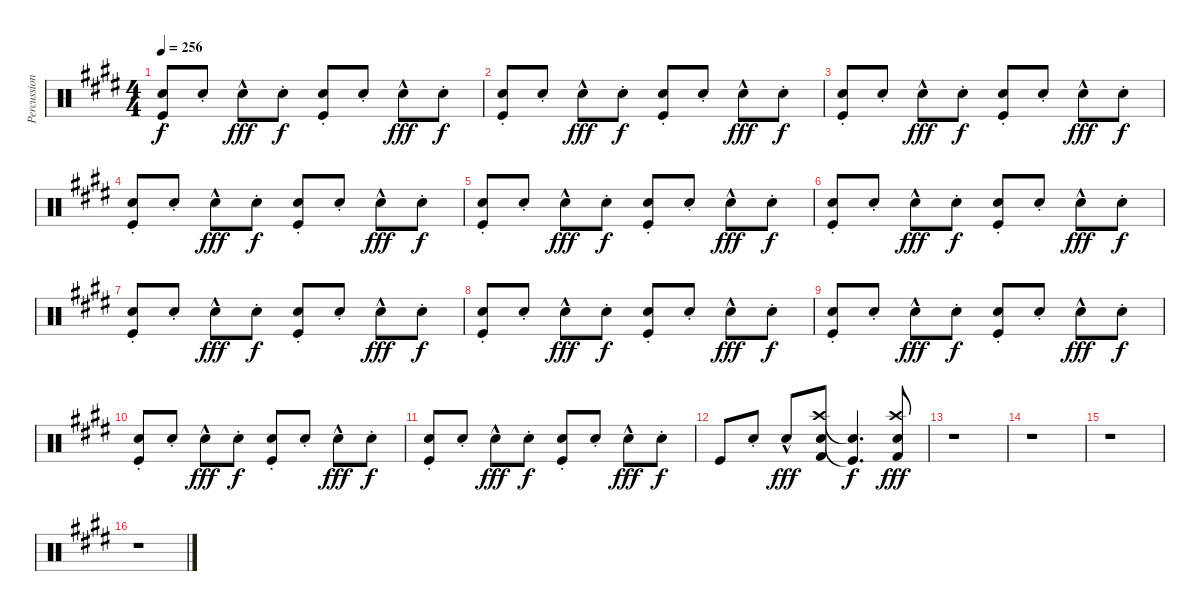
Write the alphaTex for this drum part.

\track ("Percussion" "Percussion") {instrument percussion}
\staff {score}
\articulation defaults
\ts (4 4)
\tempo 256
\clef neutral
\ks e
("Snare (hit) 2"{st} "Kick (hit)").8{dy f} "Snare (hit) 2"{st}.8 "Snare (hit) 2"{hac}.8{dy fff} "Snare (hit) 2"{st}.8{dy f} ("Snare (hit) 2"{st} "Kick (hit)").8 "Snare (hit) 2"{st}.8 "Snare (hit) 2"{hac}.8{dy fff} "Snare (hit) 2"{st}.8{dy f} |
("Snare (hit) 2"{st} "Kick (hit)").8 "Snare (hit) 2"{st}.8 "Snare (hit) 2"{hac}.8{dy fff} "Snare (hit) 2"{st}.8{dy f} ("Snare (hit) 2"{st} "Kick (hit)").8 "Snare (hit) 2"{st}.8 "Snare (hit) 2"{hac}.8{dy fff} "Snare (hit) 2"{st}.8{dy f} |
("Snare (hit) 2"{st} "Kick (hit)").8 "Snare (hit) 2"{st}.8 "Snare (hit) 2"{hac}.8{dy fff} "Snare (hit) 2"{st}.8{dy f} ("Snare (hit) 2"{st} "Kick (hit)").8 "Snare (hit) 2"{st}.8 "Snare (hit) 2"{hac}.8{dy fff} "Snare (hit) 2"{st}.8{dy f} |
("Snare (hit) 2"{st} "Kick (hit)").8 "Snare (hit) 2"{st}.8 "Snare (hit) 2"{hac}.8{dy fff} "Snare (hit) 2"{st}.8{dy f} ("Snare (hit) 2"{st} "Kick (hit)").8 "Snare (hit) 2"{st}.8 "Snare (hit) 2"{hac}.8{dy fff} "Snare (hit) 2"{st}.8{dy f} |
("Snare (hit) 2"{st} "Kick (hit)").8 "Snare (hit) 2"{st}.8 "Snare (hit) 2"{hac}.8{dy fff} "Snare (hit) 2"{st}.8{dy f} ("Snare (hit) 2"{st} "Kick (hit)").8 "Snare (hit) 2"{st}.8 "Snare (hit) 2"{hac}.8{dy fff} "Snare (hit) 2"{st}.8{dy f} |
("Snare (hit) 2"{st} "Kick (hit)").8 "Snare (hit) 2"{st}.8 "Snare (hit) 2"{hac}.8{dy fff} "Snare (hit) 2"{st}.8{dy f} ("Snare (hit) 2"{st} "Kick (hit)").8 "Snare (hit) 2"{st}.8 "Snare (hit) 2"{hac}.8{dy fff} "Snare (hit) 2"{st}.8{dy f} |
("Snare (hit) 2"{st} "Kick (hit)").8 "Snare (hit) 2"{st}.8 "Snare (hit) 2"{hac}.8{dy fff} "Snare (hit) 2"{st}.8{dy f} ("Snare (hit) 2"{st} "Kick (hit)").8 "Snare (hit) 2"{st}.8 "Snare (hit) 2"{hac}.8{dy fff} "Snare (hit) 2"{st}.8{dy f} |
("Snare (hit) 2"{st} "Kick (hit)").8 "Snare (hit) 2"{st}.8 "Snare (hit) 2"{hac}.8{dy fff} "Snare (hit) 2"{st}.8{dy f} ("Snare (hit) 2"{st} "Kick (hit)").8 "Snare (hit) 2"{st}.8 "Snare (hit) 2"{hac}.8{dy fff} "Snare (hit) 2"{st}.8{dy f} |
("Snare (hit) 2"{st} "Kick (hit)").8 "Snare (hit) 2"{st}.8 "Snare (hit) 2"{hac}.8{dy fff} "Snare (hit) 2"{st}.8{dy f} ("Snare (hit) 2"{st} "Kick (hit)").8 "Snare (hit) 2"{st}.8 "Snare (hit) 2"{hac}.8{dy fff} "Snare (hit) 2"{st}.8{dy f} |
("Snare (hit) 2"{st} "Kick (hit)").8 "Snare (hit) 2"{st}.8 "Snare (hit) 2"{hac}.8{dy fff} "Snare (hit) 2"{st}.8{dy f} ("Snare (hit) 2"{st} "Kick (hit)").8 "Snare (hit) 2"{st}.8 "Snare (hit) 2"{hac}.8{dy fff} "Snare (hit) 2"{st}.8{dy f} |
("Snare (hit) 2"{st} "Kick (hit)").8 "Snare (hit) 2"{st}.8 "Snare (hit) 2"{hac}.8{dy fff} "Snare (hit) 2"{st}.8{dy f} ("Snare (hit) 2"{st} "Kick (hit)").8 "Snare (hit) 2"{st}.8 "Snare (hit) 2"{hac}.8{dy fff} "Snare (hit) 2"{st}.8{dy f} |
"Kick (hit)".8 "Snare (hit) 2"{st}.8 "Snare (hit) 2"{hac}.8{dy fff} ("Crash high (hit)" "Snare (hit) 2" "Kick (hit) 2").8 ("Snare (hit) 2"{t} "Kick (hit)"{t}).4{d dy f} ("Crash high (hit)" "Snare (hit) 2" "Kick (hit) 2").8{dy fff} |
r.1 |
r.1 |
r.1 |
r.1
